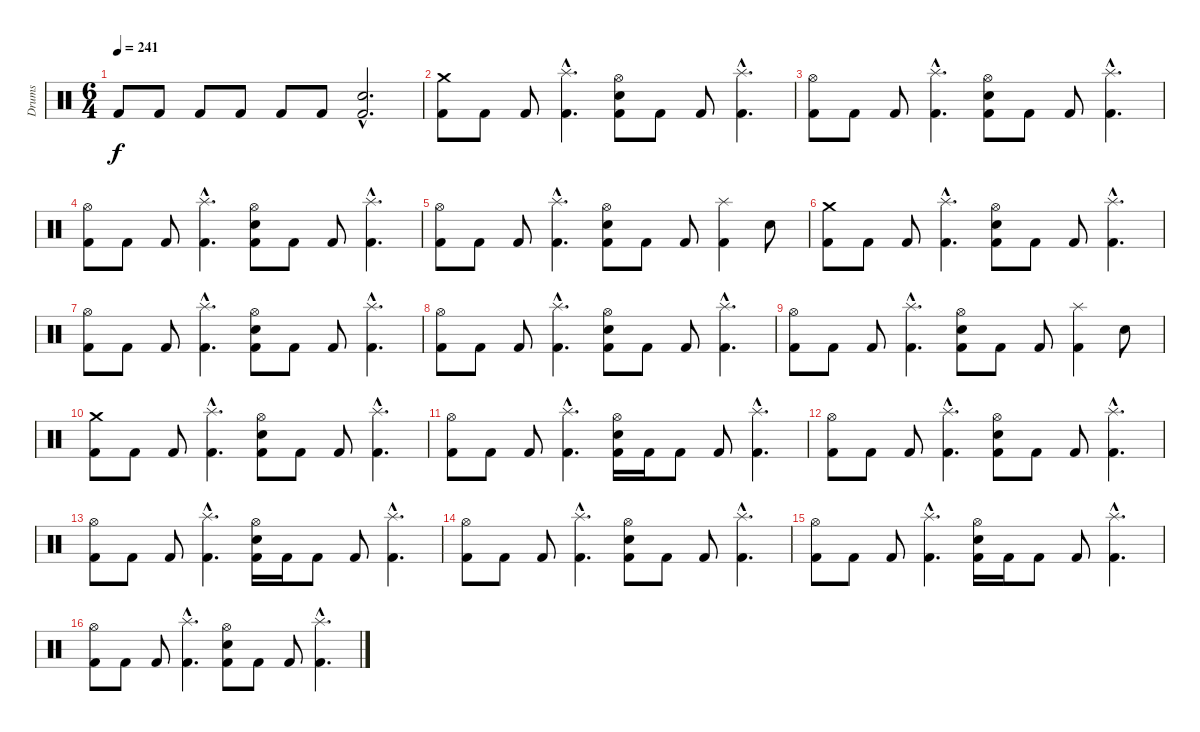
\track ("Drums" "Drums") {instrument percussion}
\staff {score}
\articulation defaults
\ts (6 4)
\tempo 241
\clef neutral
\ks c "Kick (hit) 2".8{dy f} "Kick (hit) 2".8 "Kick (hit) 2".8 "Kick (hit) 2".8 "Kick (hit) 2".8 "Kick (hit) 2".8
("Electric Snare (hit)"{hac} "Kick (hit) 2"{hac}).2{d} |
("Crash medium (hit)" "Kick (hit) 2").8 "Kick (hit) 2".8 "Kick (hit) 2".8 ("Splash (hit)"{hac} "Kick (hit) 2"{hac}).4{d} ("Hi-Hat (open)" "Electric Snare (hit)" "Kick (hit) 2").8 "Kick (hit) 2".8 "Kick (hit) 2".8 ("Splash (hit)"{hac} "Kick (hit) 2"{hac}).4{d} |
("Hi-Hat (open)" "Kick (hit) 2").8 "Kick (hit) 2".8 "Kick (hit) 2".8 ("Splash (hit)"{hac} "Kick (hit) 2"{hac}).4{d} ("Hi-Hat (open)" "Electric Snare (hit)" "Kick (hit) 2").8 "Kick (hit) 2".8 "Kick (hit) 2".8 ("Splash (hit)"{hac} "Kick (hit) 2"{hac}).4{d} |
("Hi-Hat (open)" "Kick (hit) 2").8 "Kick (hit) 2".8 "Kick (hit) 2".8 ("Splash (hit)"{hac} "Kick (hit) 2"{hac}).4{d} ("Hi-Hat (open)" "Electric Snare (hit)" "Kick (hit) 2").8 "Kick (hit) 2".8 "Kick (hit) 2".8 ("Splash (hit)"{hac} "Kick (hit) 2"{hac}).4{d} |
("Hi-Hat (open)" "Kick (hit) 2").8 "Kick (hit) 2".8 "Kick (hit) 2".8 ("Splash (hit)"{hac} "Kick (hit) 2"{hac}).4{d} ("Hi-Hat (open)" "Electric Snare (hit)" "Kick (hit) 2").8 "Kick (hit) 2".8 "Kick (hit) 2".8 ("Splash (hit)" "Kick (hit) 2").4 "Electric Snare (hit)".8 |
("Crash medium (hit)" "Kick (hit) 2").8 "Kick (hit) 2".8 "Kick (hit) 2".8 ("Splash (hit)"{hac} "Kick (hit) 2"{hac}).4{d} ("Hi-Hat (open)" "Electric Snare (hit)" "Kick (hit) 2").8 "Kick (hit) 2".8 "Kick (hit) 2".8 ("Splash (hit)"{hac} "Kick (hit) 2"{hac}).4{d} |
("Hi-Hat (open)" "Kick (hit) 2").8 "Kick (hit) 2".8 "Kick (hit) 2".8 ("Splash (hit)"{hac} "Kick (hit) 2"{hac}).4{d} ("Hi-Hat (open)" "Electric Snare (hit)" "Kick (hit) 2").8 "Kick (hit) 2".8 "Kick (hit) 2".8 ("Splash (hit)"{hac} "Kick (hit) 2"{hac}).4{d} |
("Hi-Hat (open)" "Kick (hit) 2").8 "Kick (hit) 2".8 "Kick (hit) 2".8 ("Splash (hit)"{hac} "Kick (hit) 2"{hac}).4{d} ("Hi-Hat (open)" "Electric Snare (hit)" "Kick (hit) 2").8 "Kick (hit) 2".8 "Kick (hit) 2".8 ("Splash (hit)"{hac} "Kick (hit) 2"{hac}).4{d} |
("Hi-Hat (open)" "Kick (hit) 2").8 "Kick (hit) 2".8 "Kick (hit) 2".8 ("Splash (hit)"{hac} "Kick (hit) 2"{hac}).4{d} ("Hi-Hat (open)" "Electric Snare (hit)" "Kick (hit) 2").8 "Kick (hit) 2".8 "Kick (hit) 2".8 ("Splash (hit)" "Kick (hit) 2").4 "Electric Snare (hit)".8 |
("Crash medium (hit)" "Kick (hit) 2").8 "Kick (hit) 2".8 "Kick (hit) 2".8 ("Splash (hit)"{hac} "Kick (hit) 2"{hac}).4{d} ("Hi-Hat (open)" "Electric Snare (hit)" "Kick (hit) 2").8 "Kick (hit) 2".8 "Kick (hit) 2".8 ("Splash (hit)"{hac} "Kick (hit) 2"{hac}).4{d} |
("Hi-Hat (open)" "Kick (hit) 2").8 "Kick (hit) 2".8 "Kick (hit) 2".8 ("Splash (hit)"{hac} "Kick (hit) 2"{hac}).4{d} ("Hi-Hat (open)" "Electric Snare (hit)" "Kick (hit) 2").16 "Kick (hit) 2".16 "Kick (hit) 2".8 "Kick (hit) 2".8 ("Splash (hit)"{hac} "Kick (hit) 2"{hac}).4{d} |
("Hi-Hat (open)" "Kick (hit) 2").8 "Kick (hit) 2".8 "Kick (hit) 2".8 ("Splash (hit)"{hac} "Kick (hit) 2"{hac}).4{d} ("Hi-Hat (open)" "Electric Snare (hit)" "Kick (hit) 2").8 "Kick (hit) 2".8 "Kick (hit) 2".8 ("Splash (hit)"{hac} "Kick (hit) 2"{hac}).4{d} |
("Hi-Hat (open)" "Kick (hit) 2").8 "Kick (hit) 2".8 "Kick (hit) 2".8 ("Splash (hit)"{hac} "Kick (hit) 2"{hac}).4{d} ("Hi-Hat (open)" "Electric Snare (hit)" "Kick (hit) 2").16 "Kick (hit) 2".16 "Kick (hit) 2".8 "Kick (hit) 2".8 ("Splash (hit)"{hac} "Kick (hit) 2"{hac}).4{d} |
("Hi-Hat (open)" "Kick (hit) 2").8 "Kick (hit) 2".8 "Kick (hit) 2".8 ("Splash (hit)"{hac} "Kick (hit) 2"{hac}).4{d} ("Hi-Hat (open)" "Electric Snare (hit)" "Kick (hit) 2").8 "Kick (hit) 2".8 "Kick (hit) 2".8 ("Splash (hit)"{hac} "Kick (hit) 2"{hac}).4{d} |
("Hi-Hat (open)" "Kick (hit) 2").8 "Kick (hit) 2".8 "Kick (hit) 2".8 ("Splash (hit)"{hac} "Kick (hit) 2"{hac}).4{d} ("Hi-Hat (open)" "Electric Snare (hit)" "Kick (hit) 2").16 "Kick (hit) 2".16 "Kick (hit) 2".8 "Kick (hit) 2".8 ("Splash (hit)"{hac} "Kick (hit) 2"{hac}).4{d} |
("Hi-Hat (open)" "Kick (hit) 2").8 "Kick (hit) 2".8 "Kick (hit) 2".8 ("Splash (hit)"{hac} "Kick (hit) 2"{hac}).4{d} ("Hi-Hat (open)" "Electric Snare (hit)" "Kick (hit) 2").8 "Kick (hit) 2".8 "Kick (hit) 2".8 ("Splash (hit)"{hac} "Kick (hit) 2"{hac}).4{d}
